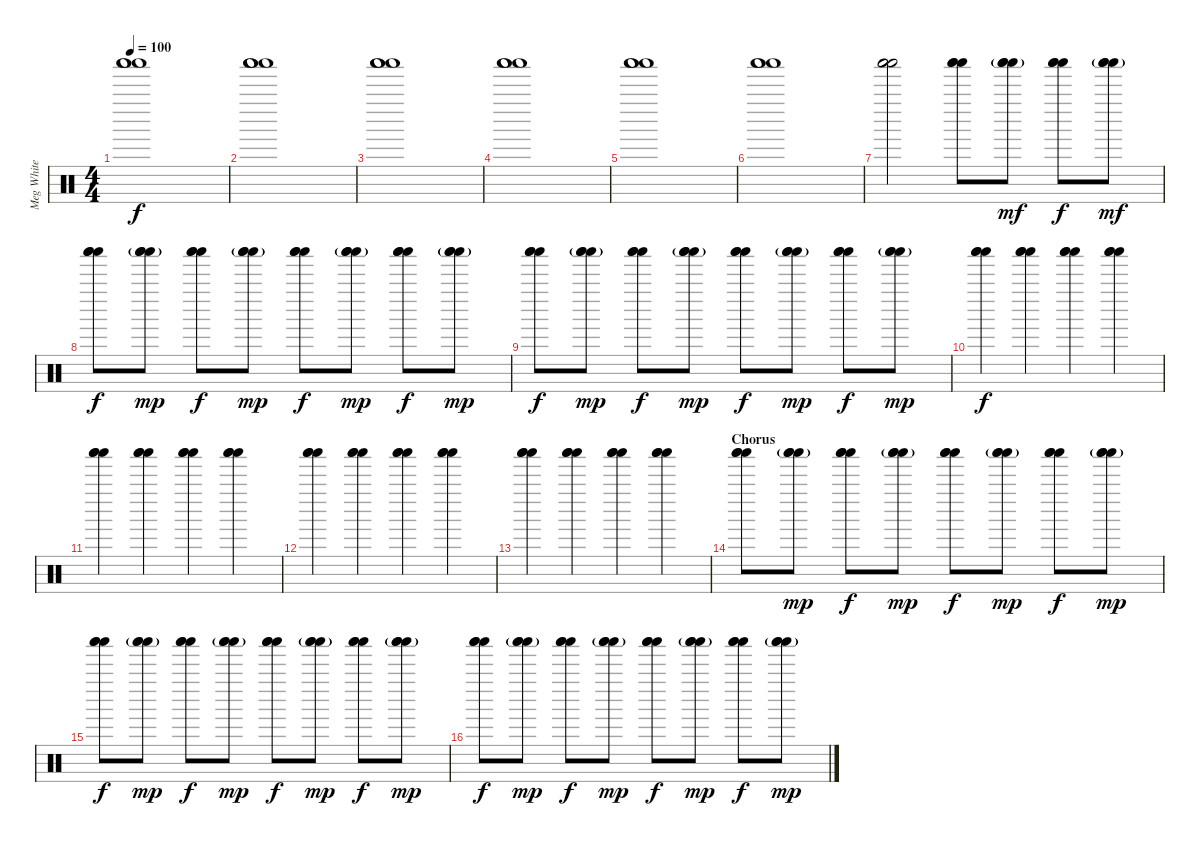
\track ("Meg White" "Meg White") {instrument percussion}
\staff {score}
\articulation defaults
\ts (4 4)
\tempo 100
\clef neutral
\ks c
("Shaker (hit)" "Shaker (hit)" "Shaker (hit)").1{dy f} |
("Shaker (hit)" "Shaker (hit)" "Shaker (hit)").1 |
("Shaker (hit)" "Shaker (hit)" "Shaker (hit)").1 |
("Shaker (hit)" "Shaker (hit)" "Shaker (hit)").1 |
("Shaker (hit)" "Shaker (hit)" "Shaker (hit)").1 |
("Shaker (hit)" "Shaker (hit)" "Shaker (hit)").1 |
("Shaker (hit)" "Shaker (hit)" "Shaker (hit)").2 ("Shaker (hit)" "Shaker (hit)" "Shaker (hit)").8 ("Shaker (hit)"{g} "Shaker (hit)"{g} "Shaker (hit)"{g}).8{dy mf} ("Shaker (hit)" "Shaker (hit)" "Shaker (hit)").8{dy f} ("Shaker (hit)"{g} "Shaker (hit)"{g} "Shaker (hit)"{g}).8{dy mf} |
("Shaker (hit)" "Shaker (hit)" "Shaker (hit)").8{dy f} ("Shaker (hit)"{g} "Shaker (hit)"{g} "Shaker (hit)"{g}).8{dy mp} ("Shaker (hit)" "Shaker (hit)" "Shaker (hit)").8{dy f} ("Shaker (hit)"{g} "Shaker (hit)"{g} "Shaker (hit)"{g}).8{dy mp} ("Shaker (hit)" "Shaker (hit)" "Shaker (hit)").8{dy f} ("Shaker (hit)"{g} "Shaker (hit)"{g} "Shaker (hit)"{g}).8{dy mp} ("Shaker (hit)" "Shaker (hit)" "Shaker (hit)").8{dy f} ("Shaker (hit)"{g} "Shaker (hit)"{g} "Shaker (hit)"{g}).8{dy mp} |
("Shaker (hit)" "Shaker (hit)" "Shaker (hit)").8{dy f} ("Shaker (hit)"{g} "Shaker (hit)"{g} "Shaker (hit)"{g}).8{dy mp} ("Shaker (hit)" "Shaker (hit)" "Shaker (hit)").8{dy f} ("Shaker (hit)"{g} "Shaker (hit)"{g} "Shaker (hit)"{g}).8{dy mp} ("Shaker (hit)" "Shaker (hit)" "Shaker (hit)").8{dy f} ("Shaker (hit)"{g} "Shaker (hit)"{g} "Shaker (hit)"{g}).8{dy mp} ("Shaker (hit)" "Shaker (hit)" "Shaker (hit)").8{dy f} ("Shaker (hit)"{g} "Shaker (hit)"{g} "Shaker (hit)"{g}).8{dy mp} |
("Shaker (hit)" "Shaker (hit)" "Shaker (hit)").4{dy f} ("Shaker (hit)" "Shaker (hit)" "Shaker (hit)").4 ("Shaker (hit)" "Shaker (hit)" "Shaker (hit)").4 ("Shaker (hit)" "Shaker (hit)" "Shaker (hit)").4 |
("Shaker (hit)" "Shaker (hit)" "Shaker (hit)").4 ("Shaker (hit)" "Shaker (hit)" "Shaker (hit)").4 ("Shaker (hit)" "Shaker (hit)" "Shaker (hit)").4 ("Shaker (hit)" "Shaker (hit)" "Shaker (hit)").4 |
("Shaker (hit)" "Shaker (hit)" "Shaker (hit)").4 ("Shaker (hit)" "Shaker (hit)" "Shaker (hit)").4 ("Shaker (hit)" "Shaker (hit)" "Shaker (hit)").4 ("Shaker (hit)" "Shaker (hit)" "Shaker (hit)").4 |
("Shaker (hit)" "Shaker (hit)" "Shaker (hit)").4 ("Shaker (hit)" "Shaker (hit)" "Shaker (hit)").4 ("Shaker (hit)" "Shaker (hit)" "Shaker (hit)").4 ("Shaker (hit)" "Shaker (hit)" "Shaker (hit)").4 |
\section ("" "Chorus")
("Shaker (hit)" "Shaker (hit)" "Shaker (hit)").8 ("Shaker (hit)"{g} "Shaker (hit)"{g} "Shaker (hit)"{g}).8{dy mp} ("Shaker (hit)" "Shaker (hit)" "Shaker (hit)").8{dy f} ("Shaker (hit)"{g} "Shaker (hit)"{g} "Shaker (hit)"{g}).8{dy mp} ("Shaker (hit)" "Shaker (hit)" "Shaker (hit)").8{dy f} ("Shaker (hit)"{g} "Shaker (hit)"{g} "Shaker (hit)"{g}).8{dy mp} ("Shaker (hit)" "Shaker (hit)" "Shaker (hit)").8{dy f} ("Shaker (hit)"{g} "Shaker (hit)"{g} "Shaker (hit)"{g}).8{dy mp} |
("Shaker (hit)" "Shaker (hit)" "Shaker (hit)").8{dy f} ("Shaker (hit)"{g} "Shaker (hit)"{g} "Shaker (hit)"{g}).8{dy mp} ("Shaker (hit)" "Shaker (hit)" "Shaker (hit)").8{dy f} ("Shaker (hit)"{g} "Shaker (hit)"{g} "Shaker (hit)"{g}).8{dy mp} ("Shaker (hit)" "Shaker (hit)" "Shaker (hit)").8{dy f} ("Shaker (hit)"{g} "Shaker (hit)"{g} "Shaker (hit)"{g}).8{dy mp} ("Shaker (hit)" "Shaker (hit)" "Shaker (hit)").8{dy f} ("Shaker (hit)"{g} "Shaker (hit)"{g} "Shaker (hit)"{g}).8{dy mp} |
("Shaker (hit)" "Shaker (hit)" "Shaker (hit)").8{dy f} ("Shaker (hit)"{g} "Shaker (hit)"{g} "Shaker (hit)"{g}).8{dy mp} ("Shaker (hit)" "Shaker (hit)" "Shaker (hit)").8{dy f} ("Shaker (hit)"{g} "Shaker (hit)"{g} "Shaker (hit)"{g}).8{dy mp} ("Shaker (hit)" "Shaker (hit)" "Shaker (hit)").8{dy f} ("Shaker (hit)"{g} "Shaker (hit)"{g} "Shaker (hit)"{g}).8{dy mp} ("Shaker (hit)" "Shaker (hit)" "Shaker (hit)").8{dy f} ("Shaker (hit)"{g} "Shaker (hit)"{g} "Shaker (hit)"{g}).8{dy mp}
